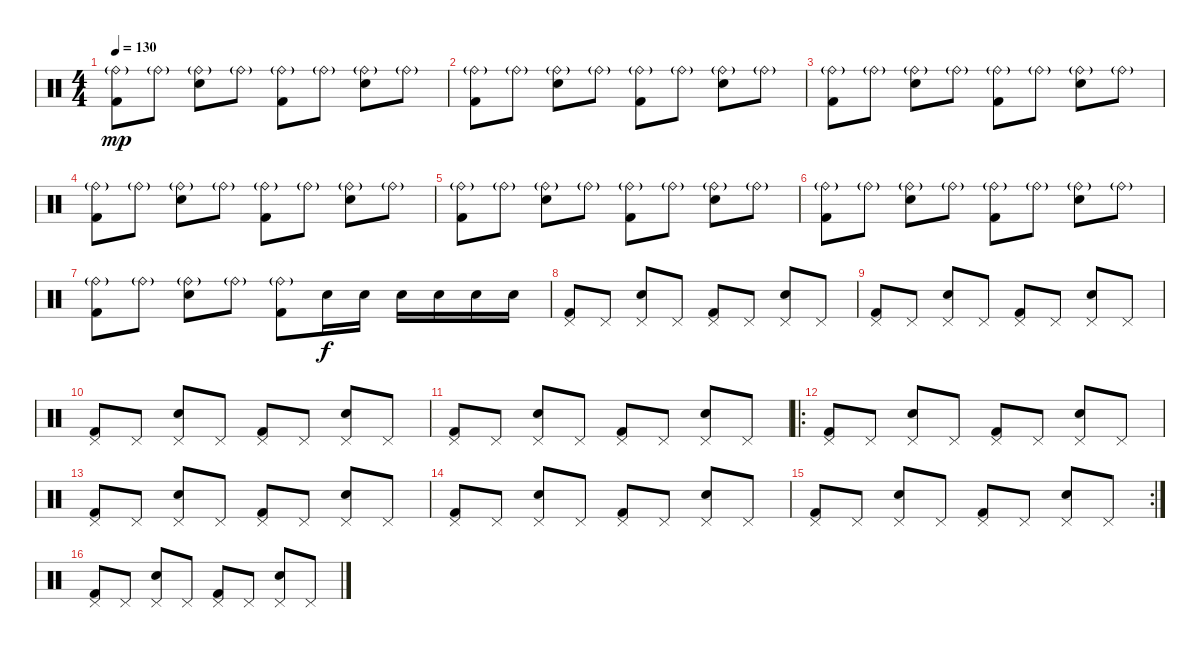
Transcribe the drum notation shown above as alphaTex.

\track "" {instrument percussion}
\staff {score}
\articulation defaults
\ts (4 4)
\tempo 130
\clef neutral
\ks c
("Kick (hit) 2" "Ride (bell)"{g}).8{dy mp} "Ride (bell)"{g}.8 ("Electric Snare (hit)" "Ride (bell)"{g}).8 "Ride (bell)"{g}.8 ("Kick (hit) 2" "Ride (bell)"{g}).8 "Ride (bell)"{g}.8 ("Electric Snare (hit)" "Ride (bell)"{g}).8 "Ride (bell)"{g}.8 |
("Kick (hit) 2" "Ride (bell)"{g}).8 "Ride (bell)"{g}.8 ("Electric Snare (hit)" "Ride (bell)"{g}).8 "Ride (bell)"{g}.8 ("Kick (hit) 2" "Ride (bell)"{g}).8 "Ride (bell)"{g}.8 ("Electric Snare (hit)" "Ride (bell)"{g}).8 "Ride (bell)"{g}.8 |
("Kick (hit) 2" "Ride (bell)"{g}).8 "Ride (bell)"{g}.8 ("Electric Snare (hit)" "Ride (bell)"{g}).8 "Ride (bell)"{g}.8 ("Kick (hit) 2" "Ride (bell)"{g}).8 "Ride (bell)"{g}.8 ("Electric Snare (hit)" "Ride (bell)"{g}).8 "Ride (bell)"{g}.8 |
("Kick (hit) 2" "Ride (bell)"{g}).8 "Ride (bell)"{g}.8 ("Electric Snare (hit)" "Ride (bell)"{g}).8 "Ride (bell)"{g}.8 ("Kick (hit) 2" "Ride (bell)"{g}).8 "Ride (bell)"{g}.8 ("Electric Snare (hit)" "Ride (bell)"{g}).8 "Ride (bell)"{g}.8 |
("Kick (hit) 2" "Ride (bell)"{g}).8 "Ride (bell)"{g}.8 ("Electric Snare (hit)" "Ride (bell)"{g}).8 "Ride (bell)"{g}.8 ("Kick (hit) 2" "Ride (bell)"{g}).8 "Ride (bell)"{g}.8 ("Electric Snare (hit)" "Ride (bell)"{g}).8 "Ride (bell)"{g}.8 |
("Kick (hit) 2" "Ride (bell)"{g}).8 "Ride (bell)"{g}.8 ("Electric Snare (hit)" "Ride (bell)"{g}).8 "Ride (bell)"{g}.8 ("Kick (hit) 2" "Ride (bell)"{g}).8 "Ride (bell)"{g}.8 ("Electric Snare (hit)" "Ride (bell)"{g}).8 "Ride (bell)"{g}.8 |
("Kick (hit) 2" "Ride (bell)"{g}).8 "Ride (bell)"{g}.8 ("Electric Snare (hit)" "Ride (bell)"{g}).8 "Ride (bell)"{g}.8 ("Kick (hit) 2" "Ride (bell)"{g}).8 "Electric Snare (hit)".16{dy f} "Electric Snare (hit)".16 "Electric Snare (hit)".16 "Electric Snare (hit)".16 "Electric Snare (hit)".16 "Electric Snare (hit)".16 |
("Kick (hit) 2" "Pedal Hi-Hat (hit)").8 "Pedal Hi-Hat (hit)".8 ("Electric Snare (hit)" "Pedal Hi-Hat (hit)").8 "Pedal Hi-Hat (hit)".8 ("Kick (hit) 2" "Pedal Hi-Hat (hit)").8 "Pedal Hi-Hat (hit)".8 ("Electric Snare (hit)" "Pedal Hi-Hat (hit)").8 "Pedal Hi-Hat (hit)".8 |
("Kick (hit) 2" "Pedal Hi-Hat (hit)").8 "Pedal Hi-Hat (hit)".8 ("Electric Snare (hit)" "Pedal Hi-Hat (hit)").8 "Pedal Hi-Hat (hit)".8 ("Kick (hit) 2" "Pedal Hi-Hat (hit)").8 "Pedal Hi-Hat (hit)".8 ("Electric Snare (hit)" "Pedal Hi-Hat (hit)").8 "Pedal Hi-Hat (hit)".8 |
("Kick (hit) 2" "Pedal Hi-Hat (hit)").8 "Pedal Hi-Hat (hit)".8 ("Electric Snare (hit)" "Pedal Hi-Hat (hit)").8 "Pedal Hi-Hat (hit)".8 ("Kick (hit) 2" "Pedal Hi-Hat (hit)").8 "Pedal Hi-Hat (hit)".8 ("Electric Snare (hit)" "Pedal Hi-Hat (hit)").8 "Pedal Hi-Hat (hit)".8 |
("Kick (hit) 2" "Pedal Hi-Hat (hit)").8 "Pedal Hi-Hat (hit)".8 ("Electric Snare (hit)" "Pedal Hi-Hat (hit)").8 "Pedal Hi-Hat (hit)".8 ("Kick (hit) 2" "Pedal Hi-Hat (hit)").8 "Pedal Hi-Hat (hit)".8 ("Electric Snare (hit)" "Pedal Hi-Hat (hit)").8 "Pedal Hi-Hat (hit)".8 |
\ro
("Kick (hit) 2" "Pedal Hi-Hat (hit)").8 "Pedal Hi-Hat (hit)".8 ("Electric Snare (hit)" "Pedal Hi-Hat (hit)").8 "Pedal Hi-Hat (hit)".8 ("Kick (hit) 2" "Pedal Hi-Hat (hit)").8 "Pedal Hi-Hat (hit)".8 ("Electric Snare (hit)" "Pedal Hi-Hat (hit)").8 "Pedal Hi-Hat (hit)".8 |
("Kick (hit) 2" "Pedal Hi-Hat (hit)").8 "Pedal Hi-Hat (hit)".8 ("Electric Snare (hit)" "Pedal Hi-Hat (hit)").8 "Pedal Hi-Hat (hit)".8 ("Kick (hit) 2" "Pedal Hi-Hat (hit)").8 "Pedal Hi-Hat (hit)".8 ("Electric Snare (hit)" "Pedal Hi-Hat (hit)").8 "Pedal Hi-Hat (hit)".8 |
("Kick (hit) 2" "Pedal Hi-Hat (hit)").8 "Pedal Hi-Hat (hit)".8 ("Electric Snare (hit)" "Pedal Hi-Hat (hit)").8 "Pedal Hi-Hat (hit)".8 ("Kick (hit) 2" "Pedal Hi-Hat (hit)").8 "Pedal Hi-Hat (hit)".8 ("Electric Snare (hit)" "Pedal Hi-Hat (hit)").8 "Pedal Hi-Hat (hit)".8 |
\rc 2
("Kick (hit) 2" "Pedal Hi-Hat (hit)").8 "Pedal Hi-Hat (hit)".8 ("Electric Snare (hit)" "Pedal Hi-Hat (hit)").8 "Pedal Hi-Hat (hit)".8 ("Kick (hit) 2" "Pedal Hi-Hat (hit)").8 "Pedal Hi-Hat (hit)".8 ("Electric Snare (hit)" "Pedal Hi-Hat (hit)").8 "Pedal Hi-Hat (hit)".8 |
("Kick (hit) 2" "Pedal Hi-Hat (hit)").8 "Pedal Hi-Hat (hit)".8 ("Electric Snare (hit)" "Pedal Hi-Hat (hit)").8 "Pedal Hi-Hat (hit)".8 ("Kick (hit) 2" "Pedal Hi-Hat (hit)").8 "Pedal Hi-Hat (hit)".8 ("Electric Snare (hit)" "Pedal Hi-Hat (hit)").8 "Pedal Hi-Hat (hit)".8
